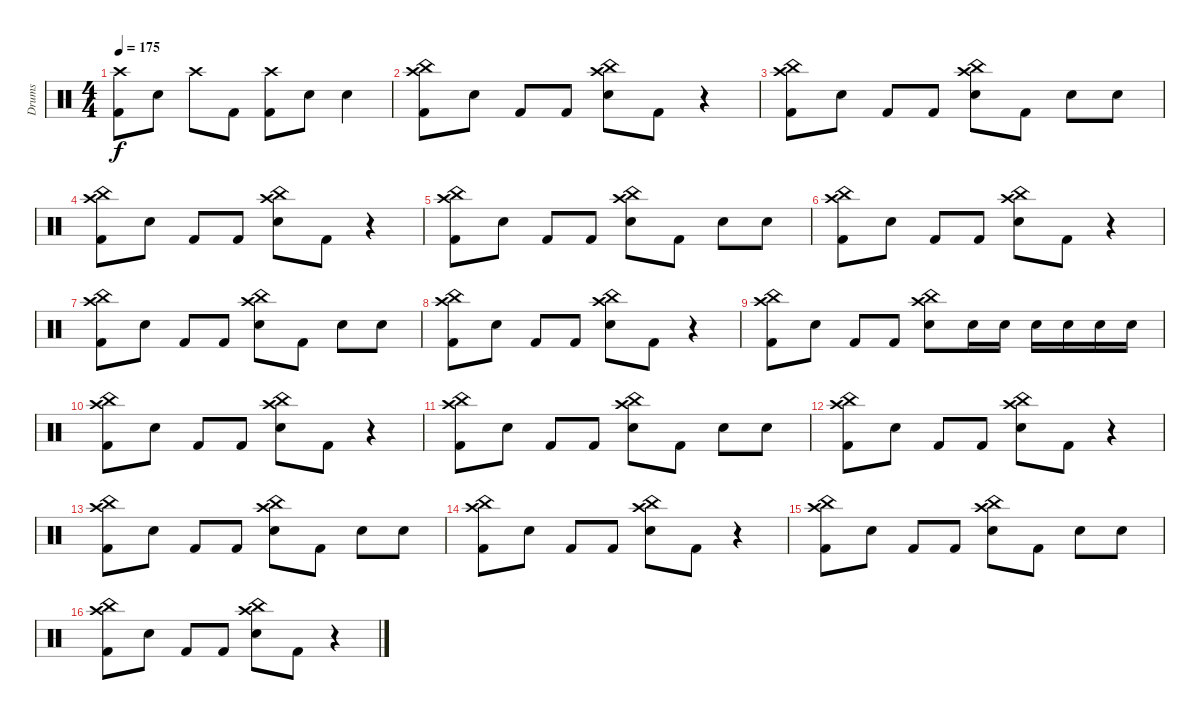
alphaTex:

\track ("Drums" "Drums") {instrument percussion}
\staff {score}
\articulation defaults
\ts (4 4)
\tempo 175
\clef neutral
\ks c
("Crash high (hit)" "Kick (hit) 2").8{dy f} "Snare (hit) 2".8 "Crash high (hit)".8 "Kick (hit) 2".8 ("Crash high (hit)" "Kick (hit) 2").8 "Snare (hit) 2".8 "Snare (hit) 2".4 |
("Crash high (hit)" "China (hit)" "Kick (hit) 2").8 "Snare (hit) 2".8 "Kick (hit) 2".8 "Kick (hit) 2".8 ("Crash high (hit)" "China (hit)" "Snare (hit) 2").8 "Kick (hit) 2".8 r.4 |
("Crash high (hit)" "China (hit)" "Kick (hit) 2").8 "Snare (hit) 2".8 "Kick (hit) 2".8 "Kick (hit) 2".8 ("Crash high (hit)" "China (hit)" "Snare (hit) 2").8 "Kick (hit) 2".8 "Snare (hit) 2".8 "Snare (hit) 2".8 |
("Crash high (hit)" "China (hit)" "Kick (hit) 2").8 "Snare (hit) 2".8 "Kick (hit) 2".8 "Kick (hit) 2".8 ("Crash high (hit)" "China (hit)" "Snare (hit) 2").8 "Kick (hit) 2".8 r.4 |
("Crash high (hit)" "China (hit)" "Kick (hit) 2").8 "Snare (hit) 2".8 "Kick (hit) 2".8 "Kick (hit) 2".8 ("Crash high (hit)" "China (hit)" "Snare (hit) 2").8 "Kick (hit) 2".8 "Snare (hit) 2".8 "Snare (hit) 2".8 |
("Crash high (hit)" "China (hit)" "Kick (hit) 2").8 "Snare (hit) 2".8 "Kick (hit) 2".8 "Kick (hit) 2".8 ("Crash high (hit)" "China (hit)" "Snare (hit) 2").8 "Kick (hit) 2".8 r.4 |
("Crash high (hit)" "China (hit)" "Kick (hit) 2").8 "Snare (hit) 2".8 "Kick (hit) 2".8 "Kick (hit) 2".8 ("Crash high (hit)" "China (hit)" "Snare (hit) 2").8 "Kick (hit) 2".8 "Snare (hit) 2".8 "Snare (hit) 2".8 |
("Crash high (hit)" "China (hit)" "Kick (hit) 2").8 "Snare (hit) 2".8 "Kick (hit) 2".8 "Kick (hit) 2".8 ("Crash high (hit)" "China (hit)" "Snare (hit) 2").8 "Kick (hit) 2".8 r.4 |
("Crash high (hit)" "China (hit)" "Kick (hit) 2").8 "Snare (hit) 2".8 "Kick (hit) 2".8 "Kick (hit) 2".8 ("Crash high (hit)" "China (hit)" "Snare (hit) 2").8 "Snare (hit) 2".16 "Snare (hit) 2".16 "Snare (hit) 2".16 "Snare (hit) 2".16 "Snare (hit) 2".16 "Snare (hit) 2".16 |
("Crash high (hit)" "China (hit)" "Kick (hit) 2").8 "Snare (hit) 2".8 "Kick (hit) 2".8 "Kick (hit) 2".8 ("Crash high (hit)" "China (hit)" "Snare (hit) 2").8 "Kick (hit) 2".8 r.4 |
("Crash high (hit)" "China (hit)" "Kick (hit) 2").8 "Snare (hit) 2".8 "Kick (hit) 2".8 "Kick (hit) 2".8 ("Crash high (hit)" "China (hit)" "Snare (hit) 2").8 "Kick (hit) 2".8 "Snare (hit) 2".8 "Snare (hit) 2".8 |
("Crash high (hit)" "China (hit)" "Kick (hit) 2").8 "Snare (hit) 2".8 "Kick (hit) 2".8 "Kick (hit) 2".8 ("Crash high (hit)" "China (hit)" "Snare (hit) 2").8 "Kick (hit) 2".8 r.4 |
("Crash high (hit)" "China (hit)" "Kick (hit) 2").8 "Snare (hit) 2".8 "Kick (hit) 2".8 "Kick (hit) 2".8 ("Crash high (hit)" "China (hit)" "Snare (hit) 2").8 "Kick (hit) 2".8 "Snare (hit) 2".8 "Snare (hit) 2".8 |
("Crash high (hit)" "China (hit)" "Kick (hit) 2").8 "Snare (hit) 2".8 "Kick (hit) 2".8 "Kick (hit) 2".8 ("Crash high (hit)" "China (hit)" "Snare (hit) 2").8 "Kick (hit) 2".8 r.4 |
("Crash high (hit)" "China (hit)" "Kick (hit) 2").8 "Snare (hit) 2".8 "Kick (hit) 2".8 "Kick (hit) 2".8 ("Crash high (hit)" "China (hit)" "Snare (hit) 2").8 "Kick (hit) 2".8 "Snare (hit) 2".8 "Snare (hit) 2".8 |
("Crash high (hit)" "China (hit)" "Kick (hit) 2").8 "Snare (hit) 2".8 "Kick (hit) 2".8 "Kick (hit) 2".8 ("Crash high (hit)" "China (hit)" "Snare (hit) 2").8 "Kick (hit) 2".8 r.4
